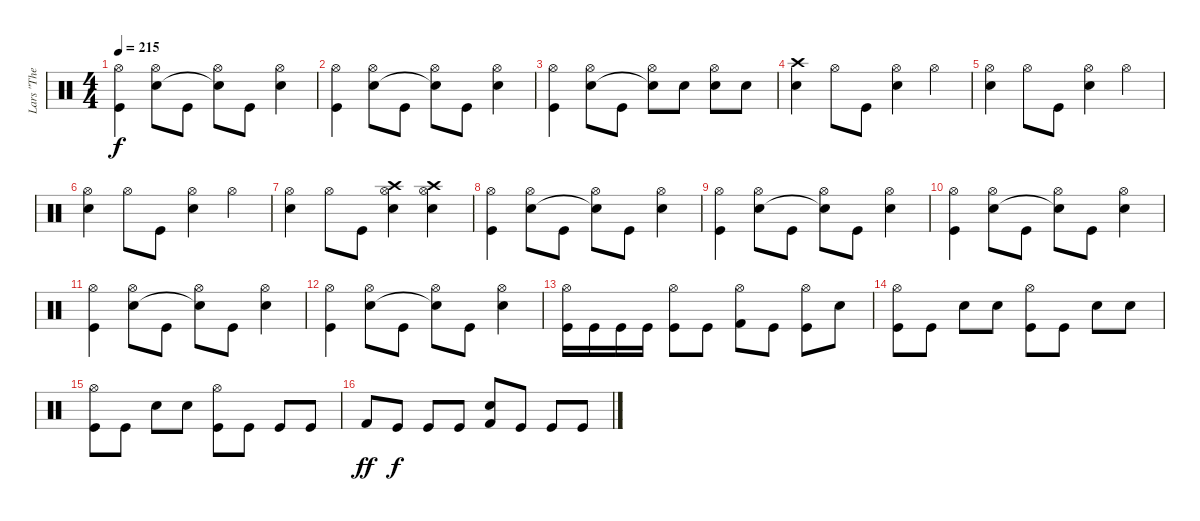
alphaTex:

\track ("Lars \"The Antichrist\" Ulrich" "Lars \"The ") {instrument percussion}
\staff {score}
\articulation defaults
\ts (4 4)
\tempo 215
\clef neutral
\ks c
("Hi-Hat (open)" "Kick (hit)").4{dy f} ("Hi-Hat (open)" "Electric Snare (hit)").8 "Kick (hit)".8 ("Hi-Hat (open)" "Snare (hit)"{t}).8 "Kick (hit)".8 ("Hi-Hat (open)" "Electric Snare (hit)").4 |
("Hi-Hat (open)" "Kick (hit)").4 ("Hi-Hat (open)" "Electric Snare (hit)").8 "Kick (hit)".8 ("Hi-Hat (open)" "Snare (hit)"{t}).8 "Kick (hit)".8 ("Hi-Hat (open)" "Electric Snare (hit)").4 |
("Hi-Hat (open)" "Kick (hit)").4 ("Hi-Hat (open)" "Electric Snare (hit)").8 "Kick (hit)".8 ("Hi-Hat (open)" "Snare (hit)"{t}).8 "Electric Snare (hit)".8 ("Hi-Hat (open)" "Electric Snare (hit)").8 "Electric Snare (hit)".8 |
("Crash high (hit)" "Electric Snare (hit)").4 "Hi-Hat (open)".8 "Kick (hit)".8 ("Hi-Hat (open)" "Electric Snare (hit)").4 "Hi-Hat (open)".4 |
("Hi-Hat (open)" "Electric Snare (hit)").4 "Hi-Hat (open)".8 "Kick (hit)".8 ("Hi-Hat (open)" "Electric Snare (hit)").4 "Hi-Hat (open)".4 |
("Hi-Hat (open)" "Electric Snare (hit)").4 "Hi-Hat (open)".8 "Kick (hit)".8 ("Hi-Hat (open)" "Electric Snare (hit)").4 "Hi-Hat (open)".4 |
("Hi-Hat (open)" "Electric Snare (hit)").4 "Hi-Hat (open)".8 "Kick (hit)".8 ("Hi-Hat (open)" "Crash high (hit)" "Electric Snare (hit)").4 ("Hi-Hat (open)" "Crash high (hit)" "Electric Snare (hit)").4 |
("Hi-Hat (open)" "Kick (hit)").4 ("Hi-Hat (open)" "Electric Snare (hit)").8 "Kick (hit)".8 ("Hi-Hat (open)" "Snare (hit)"{t}).8 "Kick (hit)".8 ("Hi-Hat (open)" "Electric Snare (hit)").4 |
("Hi-Hat (open)" "Kick (hit)").4 ("Hi-Hat (open)" "Electric Snare (hit)").8 "Kick (hit)".8 ("Hi-Hat (open)" "Snare (hit)"{t}).8 "Kick (hit)".8 ("Hi-Hat (open)" "Electric Snare (hit)").4 |
("Hi-Hat (open)" "Kick (hit)").4 ("Hi-Hat (open)" "Electric Snare (hit)").8 "Kick (hit)".8 ("Hi-Hat (open)" "Snare (hit)"{t}).8 "Kick (hit)".8 ("Hi-Hat (open)" "Electric Snare (hit)").4 |
("Hi-Hat (open)" "Kick (hit)").4 ("Hi-Hat (open)" "Electric Snare (hit)").8 "Kick (hit)".8 ("Hi-Hat (open)" "Snare (hit)"{t}).8 "Kick (hit)".8 ("Hi-Hat (open)" "Electric Snare (hit)").4 |
("Hi-Hat (open)" "Kick (hit)").4 ("Hi-Hat (open)" "Electric Snare (hit)").8 "Kick (hit)".8 ("Hi-Hat (open)" "Snare (hit)"{t}).8 "Kick (hit)".8 ("Hi-Hat (open)" "Electric Snare (hit)").4 |
("Hi-Hat (open)" "Kick (hit)").16 "Kick (hit)".16 "Kick (hit)".16 "Kick (hit)".16 ("Hi-Hat (open)" "Kick (hit)").8 "Kick (hit)".8 ("Hi-Hat (open)" "Kick (hit) 2").8 "Kick (hit)".8 ("Hi-Hat (open)" "Kick (hit)").8 "Electric Snare (hit)".8 |
("Hi-Hat (open)" "Kick (hit)").8 "Kick (hit)".8 "Electric Snare (hit)".8 "Electric Snare (hit)".8 ("Hi-Hat (open)" "Kick (hit)").8 "Kick (hit)".8 "Electric Snare (hit)".8 "Electric Snare (hit)".8 |
("Hi-Hat (open)" "Kick (hit)").8 "Kick (hit)".8 "Electric Snare (hit)".8 "Electric Snare (hit)".8 ("Hi-Hat (open)" "Kick (hit)").8 "Kick (hit)".8 "Kick (hit)".8 "Kick (hit)".8 |
"Kick (hit) 2".8{dy ff} "Kick (hit)".8{dy f} "Kick (hit)".8 "Kick (hit)".8 ("Electric Snare (hit)" "Kick (hit) 2").8 "Kick (hit)".8 "Kick (hit)".8 "Kick (hit)".8
